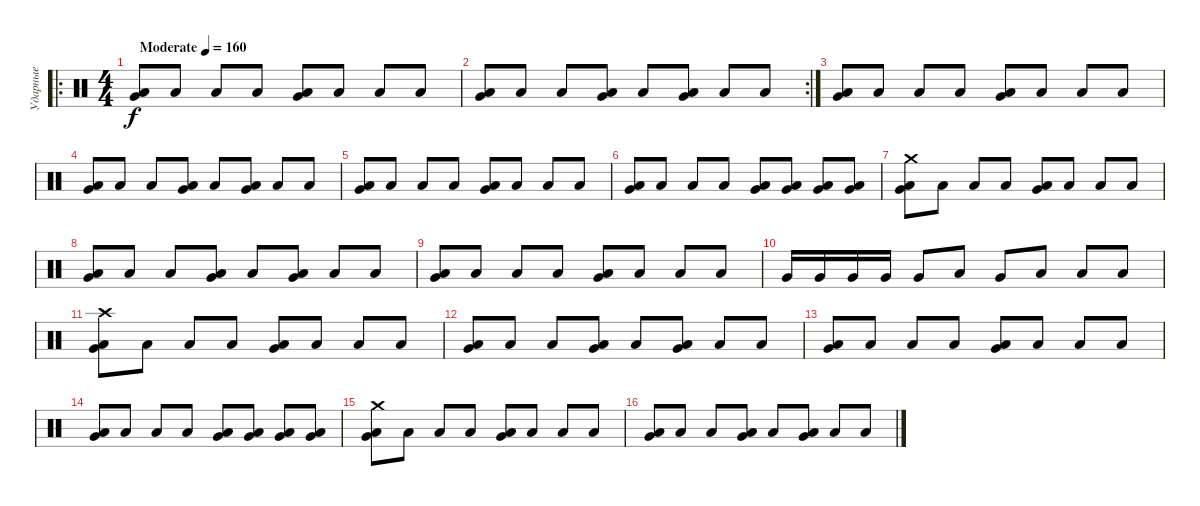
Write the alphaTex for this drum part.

\track ("Ударные" "Ударные") {instrument percussion}
\staff {score}
\articulation defaults
\ro
\ts (4 4)
\tempo (160 "Moderate")
\clef neutral
\ks c
("Very Low Tom (hit)" "Low Floor Tom (hit)").8{dy f} "Low Floor Tom (hit)".8 "Low Floor Tom (hit)".8 "Low Floor Tom (hit)".8 ("Very Low Tom (hit)" "Low Floor Tom (hit)").8 "Low Floor Tom (hit)".8 "Low Floor Tom (hit)".8 "Low Floor Tom (hit)".8 |
\rc 2
("Very Low Tom (hit)" "Low Floor Tom (hit)").8 "Low Floor Tom (hit)".8 "Low Floor Tom (hit)".8 ("Very Low Tom (hit)" "Low Floor Tom (hit)").8 "Low Floor Tom (hit)".8 ("Very Low Tom (hit)" "Low Floor Tom (hit)").8 "Low Floor Tom (hit)".8 "Low Floor Tom (hit)".8 |
("Very Low Tom (hit)" "Low Floor Tom (hit)").8 "Low Floor Tom (hit)".8 "Low Floor Tom (hit)".8 "Low Floor Tom (hit)".8 ("Very Low Tom (hit)" "Low Floor Tom (hit)").8 "Low Floor Tom (hit)".8 "Low Floor Tom (hit)".8 "Low Floor Tom (hit)".8 |
("Very Low Tom (hit)" "Low Floor Tom (hit)").8 "Low Floor Tom (hit)".8 "Low Floor Tom (hit)".8 ("Very Low Tom (hit)" "Low Floor Tom (hit)").8 "Low Floor Tom (hit)".8 ("Very Low Tom (hit)" "Low Floor Tom (hit)").8 "Low Floor Tom (hit)".8 "Low Floor Tom (hit)".8 |
("Very Low Tom (hit)" "Low Floor Tom (hit)").8 "Low Floor Tom (hit)".8 "Low Floor Tom (hit)".8 "Low Floor Tom (hit)".8 ("Very Low Tom (hit)" "Low Floor Tom (hit)").8 "Low Floor Tom (hit)".8 "Low Floor Tom (hit)".8 "Low Floor Tom (hit)".8 |
("Very Low Tom (hit)" "Low Floor Tom (hit)").8 "Low Floor Tom (hit)".8 "Low Floor Tom (hit)".8 "Low Floor Tom (hit)".8 ("Very Low Tom (hit)" "Low Floor Tom (hit)").8 ("Very Low Tom (hit)" "Low Floor Tom (hit)").8 ("Very Low Tom (hit)" "Low Floor Tom (hit)").8 ("Very Low Tom (hit)" "Low Floor Tom (hit)").8 |
("Crash medium (hit)" "Very Low Tom (hit)" "Low Floor Tom (hit)").8 "Low Floor Tom (hit)".8 "Low Floor Tom (hit)".8 "Low Floor Tom (hit)".8 ("Very Low Tom (hit)" "Low Floor Tom (hit)").8 "Low Floor Tom (hit)".8 "Low Floor Tom (hit)".8 "Low Floor Tom (hit)".8 |
("Very Low Tom (hit)" "Low Floor Tom (hit)").8 "Low Floor Tom (hit)".8 "Low Floor Tom (hit)".8 ("Very Low Tom (hit)" "Low Floor Tom (hit)").8 "Low Floor Tom (hit)".8 ("Very Low Tom (hit)" "Low Floor Tom (hit)").8 "Low Floor Tom (hit)".8 "Low Floor Tom (hit)".8 |
("Very Low Tom (hit)" "Low Floor Tom (hit)").8 "Low Floor Tom (hit)".8 "Low Floor Tom (hit)".8 "Low Floor Tom (hit)".8 ("Very Low Tom (hit)" "Low Floor Tom (hit)").8 "Low Floor Tom (hit)".8 "Low Floor Tom (hit)".8 "Low Floor Tom (hit)".8 |
"Very Low Tom (hit)".16 "Very Low Tom (hit)".16 "Very Low Tom (hit)".16 "Very Low Tom (hit)".16 "Very Low Tom (hit)".8 "Low Floor Tom (hit)".8 "Very Low Tom (hit)".8 "Low Floor Tom (hit)".8 "Low Floor Tom (hit)".8 "Low Floor Tom (hit)".8 |
("Crash high (hit)" "Very Low Tom (hit)" "Low Floor Tom (hit)").8 "Low Floor Tom (hit)".8 "Low Floor Tom (hit)".8 "Low Floor Tom (hit)".8 ("Very Low Tom (hit)" "Low Floor Tom (hit)").8 "Low Floor Tom (hit)".8 "Low Floor Tom (hit)".8 "Low Floor Tom (hit)".8 |
("Very Low Tom (hit)" "Low Floor Tom (hit)").8 "Low Floor Tom (hit)".8 "Low Floor Tom (hit)".8 ("Very Low Tom (hit)" "Low Floor Tom (hit)").8 "Low Floor Tom (hit)".8 ("Very Low Tom (hit)" "Low Floor Tom (hit)").8 "Low Floor Tom (hit)".8 "Low Floor Tom (hit)".8 |
("Very Low Tom (hit)" "Low Floor Tom (hit)").8 "Low Floor Tom (hit)".8 "Low Floor Tom (hit)".8 "Low Floor Tom (hit)".8 ("Very Low Tom (hit)" "Low Floor Tom (hit)").8 "Low Floor Tom (hit)".8 "Low Floor Tom (hit)".8 "Low Floor Tom (hit)".8 |
("Very Low Tom (hit)" "Low Floor Tom (hit)").8 "Low Floor Tom (hit)".8 "Low Floor Tom (hit)".8 "Low Floor Tom (hit)".8 ("Very Low Tom (hit)" "Low Floor Tom (hit)").8 ("Very Low Tom (hit)" "Low Floor Tom (hit)").8 ("Very Low Tom (hit)" "Low Floor Tom (hit)").8 ("Very Low Tom (hit)" "Low Floor Tom (hit)").8 |
("Crash medium (hit)" "Very Low Tom (hit)" "Low Floor Tom (hit)").8 "Low Floor Tom (hit)".8 "Low Floor Tom (hit)".8 "Low Floor Tom (hit)".8 ("Very Low Tom (hit)" "Low Floor Tom (hit)").8 "Low Floor Tom (hit)".8 "Low Floor Tom (hit)".8 "Low Floor Tom (hit)".8 |
("Very Low Tom (hit)" "Low Floor Tom (hit)").8 "Low Floor Tom (hit)".8 "Low Floor Tom (hit)".8 ("Very Low Tom (hit)" "Low Floor Tom (hit)").8 "Low Floor Tom (hit)".8 ("Very Low Tom (hit)" "Low Floor Tom (hit)").8 "Low Floor Tom (hit)".8 "Low Floor Tom (hit)".8
